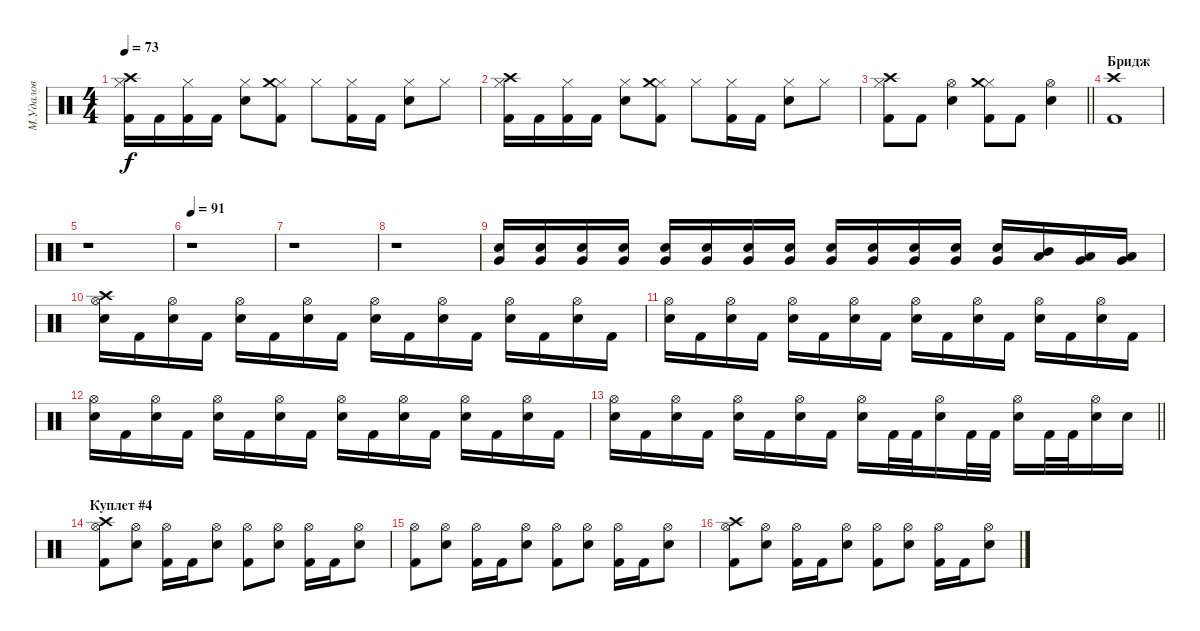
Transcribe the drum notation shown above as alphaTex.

\track ("М.Удалов" "М.Удалов") {instrument percussion}
\staff {score}
\articulation defaults
\ts (4 4)
\tempo 73
\clef neutral
\ks c
("Kick (hit) 2" "Hi-Hat (closed)" "Crash high (hit)").16{dy f} "Kick (hit) 2".16 ("Kick (hit) 2" "Hi-Hat (closed)").16 "Kick (hit) 2".16 ("Snare (hit) 2" "Hi-Hat (closed)").8 ("Kick (hit) 2" "Hi-Hat (closed)" "Crash medium (hit)").8 "Hi-Hat (closed)".8 ("Kick (hit) 2" "Hi-Hat (closed)").16 "Kick (hit) 2".16 ("Snare (hit) 2" "Hi-Hat (closed)").8 "Hi-Hat (closed)".8 |
("Kick (hit) 2" "Hi-Hat (closed)" "Crash high (hit)").16 "Kick (hit) 2".16 ("Kick (hit) 2" "Hi-Hat (closed)").16 "Kick (hit) 2".16 ("Snare (hit) 2" "Hi-Hat (closed)").8 ("Kick (hit) 2" "Hi-Hat (closed)" "Crash medium (hit)").8 "Hi-Hat (closed)".8 ("Kick (hit) 2" "Hi-Hat (closed)").16 "Kick (hit) 2".16 ("Snare (hit) 2" "Hi-Hat (closed)").8 "Hi-Hat (closed)".8 |
\barLineRight lightlight
("Kick (hit) 2" "Hi-Hat (closed)" "Crash high (hit)").8 "Kick (hit) 2".8 ("Snare (hit) 2" "Hi-Hat (open)").4 ("Kick (hit) 2" "Hi-Hat (closed)" "Crash medium (hit)").8 "Kick (hit) 2".8 ("Snare (hit) 2" "Hi-Hat (open)").4 |
\section ("" "Бридж")
("Kick (hit) 2" "Crash high (hit)").1{volume 0} |
r.1 |
\tempo 91
r.1 |
r.1 |
r.1 |
("Electric Snare (hit)" "Very Low Tom (hit)").16{volume 16} ("Electric Snare (hit)" "Very Low Tom (hit)").16 ("Electric Snare (hit)" "Very Low Tom (hit)").16 ("Electric Snare (hit)" "Very Low Tom (hit)").16 ("Electric Snare (hit)" "Very Low Tom (hit)").16 ("Electric Snare (hit)" "Very Low Tom (hit)").16 ("Electric Snare (hit)" "Very Low Tom (hit)").16 ("Electric Snare (hit)" "Very Low Tom (hit)").16 ("Electric Snare (hit)" "Very Low Tom (hit)").16 ("Electric Snare (hit)" "Very Low Tom (hit)").16 ("Electric Snare (hit)" "Very Low Tom (hit)").16 ("Electric Snare (hit)" "Very Low Tom (hit)").16 ("Electric Snare (hit)" "Very Low Tom (hit)").16 ("Low Tom (hit)" "Mid Tom (hit)").16 ("Very Low Tom (hit)" "Low Tom (hit)").16 ("Low Floor Tom (hit)" "Very Low Tom (hit)").16 |
("Electric Snare (hit)" "Hi-Hat (open)" "Crash high (hit)").16 "Kick (hit) 2".16 ("Electric Snare (hit)" "Hi-Hat (open)").16 "Kick (hit) 2".16 ("Electric Snare (hit)" "Hi-Hat (open)").16 "Kick (hit) 2".16 ("Electric Snare (hit)" "Hi-Hat (open)").16 "Kick (hit) 2".16 ("Electric Snare (hit)" "Hi-Hat (open)").16 "Kick (hit) 2".16 ("Electric Snare (hit)" "Hi-Hat (open)").16 "Kick (hit) 2".16 ("Electric Snare (hit)" "Hi-Hat (open)").16 "Kick (hit) 2".16 ("Electric Snare (hit)" "Hi-Hat (open)").16 "Kick (hit) 2".16 |
("Electric Snare (hit)" "Hi-Hat (open)").16 "Kick (hit) 2".16 ("Electric Snare (hit)" "Hi-Hat (open)").16 "Kick (hit) 2".16 ("Electric Snare (hit)" "Hi-Hat (open)").16 "Kick (hit) 2".16 ("Electric Snare (hit)" "Hi-Hat (open)").16 "Kick (hit) 2".16 ("Electric Snare (hit)" "Hi-Hat (open)").16 "Kick (hit) 2".16 ("Electric Snare (hit)" "Hi-Hat (open)").16 "Kick (hit) 2".16 ("Electric Snare (hit)" "Hi-Hat (open)").16 "Kick (hit) 2".16 ("Electric Snare (hit)" "Hi-Hat (open)").16 "Kick (hit) 2".16 |
("Electric Snare (hit)" "Hi-Hat (open)").16 "Kick (hit) 2".16 ("Electric Snare (hit)" "Hi-Hat (open)").16 "Kick (hit) 2".16 ("Electric Snare (hit)" "Hi-Hat (open)").16 "Kick (hit) 2".16 ("Electric Snare (hit)" "Hi-Hat (open)").16 "Kick (hit) 2".16 ("Electric Snare (hit)" "Hi-Hat (open)").16 "Kick (hit) 2".16 ("Electric Snare (hit)" "Hi-Hat (open)").16 "Kick (hit) 2".16 ("Electric Snare (hit)" "Hi-Hat (open)").16 "Kick (hit) 2".16 ("Electric Snare (hit)" "Hi-Hat (open)").16 "Kick (hit) 2".16 |
\barLineRight lightlight
("Electric Snare (hit)" "Hi-Hat (open)").16 "Kick (hit) 2".16 ("Electric Snare (hit)" "Hi-Hat (open)").16 "Kick (hit) 2".16 ("Electric Snare (hit)" "Hi-Hat (open)").16 "Kick (hit) 2".16 ("Electric Snare (hit)" "Hi-Hat (open)").16 "Kick (hit) 2".16 ("Electric Snare (hit)" "Hi-Hat (open)").16 "Kick (hit) 2".32 "Kick (hit) 2".32 ("Electric Snare (hit)" "Hi-Hat (open)").16 "Kick (hit) 2".32 "Kick (hit) 2".32 ("Electric Snare (hit)" "Hi-Hat (open)").16 "Kick (hit) 2".32 "Kick (hit) 2".32 ("Electric Snare (hit)" "Hi-Hat (open)").16 "Electric Snare (hit)".16 |
\section ("" "Куплет #4")
("Kick (hit) 2" "Hi-Hat (open)" "Crash high (hit)").8 ("Electric Snare (hit)" "Hi-Hat (open)").8 ("Kick (hit) 2" "Hi-Hat (open)").16 "Kick (hit) 2".16 ("Electric Snare (hit)" "Hi-Hat (open)").8 ("Kick (hit) 2" "Hi-Hat (open)").8 ("Electric Snare (hit)" "Hi-Hat (open)").8 ("Kick (hit) 2" "Hi-Hat (open)").16 "Kick (hit) 2".16 ("Electric Snare (hit)" "Hi-Hat (open)").8 |
("Kick (hit) 2" "Hi-Hat (open)").8 ("Electric Snare (hit)" "Hi-Hat (open)").8 ("Kick (hit) 2" "Hi-Hat (open)").16 "Kick (hit) 2".16 ("Electric Snare (hit)" "Hi-Hat (open)").8 ("Kick (hit) 2" "Hi-Hat (open)").8 ("Electric Snare (hit)" "Hi-Hat (open)").8 ("Kick (hit) 2" "Hi-Hat (open)").16 "Kick (hit) 2".16 ("Electric Snare (hit)" "Hi-Hat (open)").8 |
("Kick (hit) 2" "Hi-Hat (open)" "Crash high (hit)").8 ("Electric Snare (hit)" "Hi-Hat (open)").8 ("Kick (hit) 2" "Hi-Hat (open)").16 "Kick (hit) 2".16 ("Electric Snare (hit)" "Hi-Hat (open)").8 ("Kick (hit) 2" "Hi-Hat (open)").8 ("Electric Snare (hit)" "Hi-Hat (open)").8 ("Kick (hit) 2" "Hi-Hat (open)").16 "Kick (hit) 2".16 ("Electric Snare (hit)" "Hi-Hat (open)").8
